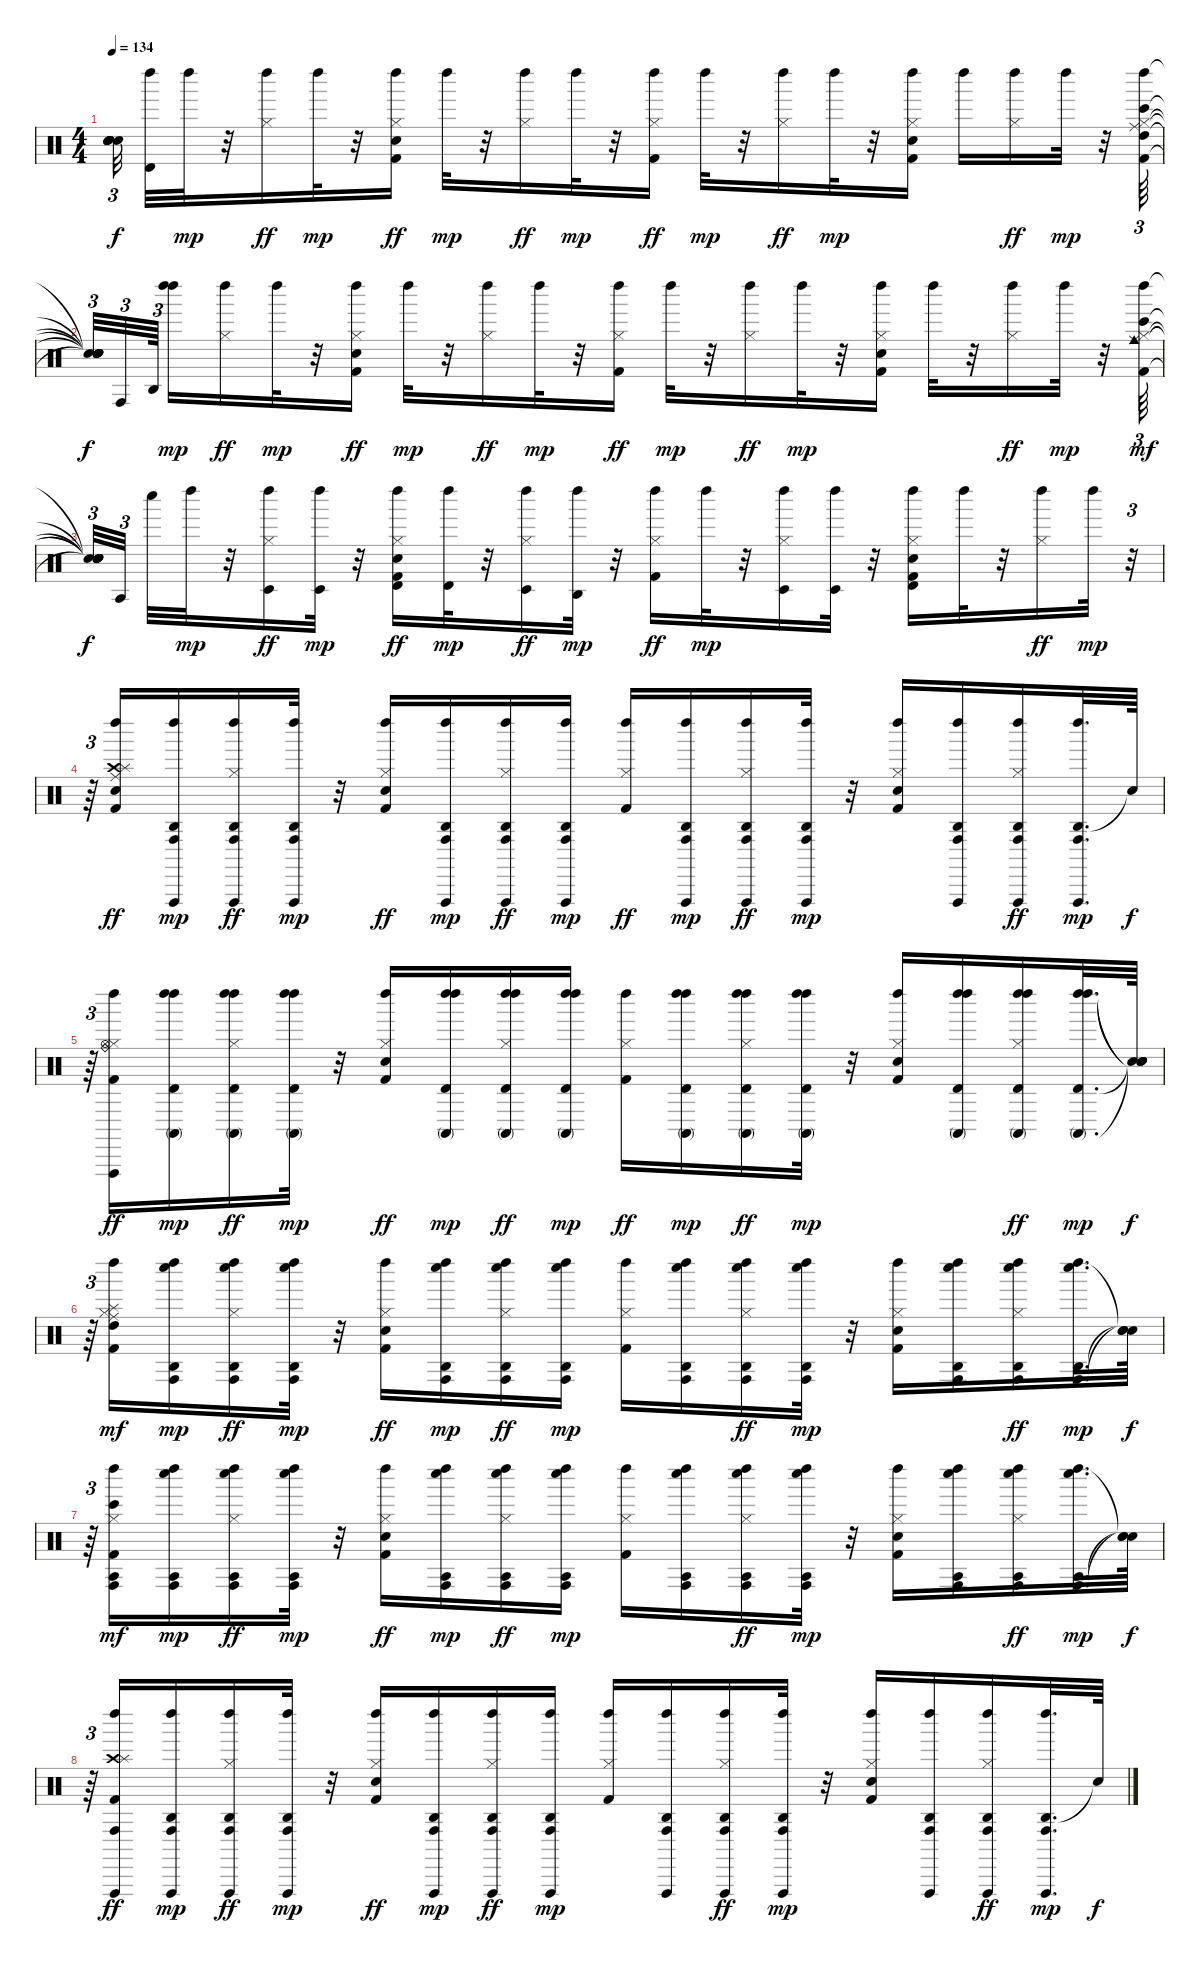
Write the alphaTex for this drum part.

\track "" {instrument percussion}
\staff {score}
\articulation defaults
\ts (4 4)
\tempo 134
\clef neutral
\ks c
("Snare (hit)"{t} "Snare (hit)"{t} "Snare (hit)"{t} "Snare (hit)"{t} "Snare (hit)"{t} "Snare (hit)"{t}).32{tu (3 2) dy f beam splitsecondary} ("Timbale high (hit)" "Left Maraca (hit)").32 "Left Maraca (hit)".32{dy mp} r.32 ("Hi-Hat (closed)" "Left Maraca (hit)").16{dy ff} "Left Maraca (hit)".32{dy mp} r.32 ("Left Maraca (hit)" "Hi-Hat (closed)" "Snare (hit) 2" "Kick (hit) 2").16{dy ff} "Left Maraca (hit)".32{dy mp} r.32 ("Left Maraca (hit)" "Hi-Hat (closed)").16{dy ff} "Left Maraca (hit)".32{dy mp} r.32 ("Left Maraca (hit)" "Hi-Hat (closed)" "Kick (hit) 2").16{dy ff} "Left Maraca (hit)".32{dy mp} r.32 ("Left Maraca (hit)" "Hi-Hat (closed)").16{dy ff} "Left Maraca (hit)".32{dy mp} r.32 ("Kick (hit) 2" "Snare (hit) 2" "Hi-Hat (closed)" "Left Maraca (hit)").16 "Left Maraca (hit)".16 ("Hi-Hat (closed)" "Left Maraca (hit)").16{dy ff} "Left Maraca (hit)".32{dy mp} r.32 ("Bongo High (hit)" "Kick (hit) 2" "Hi-Hat (closed)" "Left Maraca (hit)" "High Tom (hit)" "Ride (middle)").64{tu (3 2)} |
("Snare (hit)"{t} "Snare (hit)"{t} "Snare (hit)"{t} "Snare (hit)"{t} "Snare (hit)"{t} "Snare (hit)"{t}).32{tu (3 2) dy f} "Conga high (hit)".32{tu (3 2)} "Agogo high (hit)".64{tu (3 2) beam splitsecondary} ("Left Maraca (hit)" "Left Maraca (hit)").16{dy mp} ("Hi-Hat (closed)" "Left Maraca (hit)").16{dy ff} "Left Maraca (hit)".32{dy mp} r.32 ("Left Maraca (hit)" "Hi-Hat (closed)" "Snare (hit) 2" "Kick (hit) 2").16{dy ff} "Left Maraca (hit)".32{dy mp} r.32 ("Left Maraca (hit)" "Hi-Hat (closed)").16{dy ff} "Left Maraca (hit)".32{dy mp} r.32 ("Left Maraca (hit)" "Hi-Hat (closed)" "Kick (hit) 2").16{dy ff} "Left Maraca (hit)".32{dy mp} r.32 ("Left Maraca (hit)" "Hi-Hat (closed)").16{dy ff} "Left Maraca (hit)".32{dy mp} r.32 ("Kick (hit) 2" "Snare (hit) 2" "Hi-Hat (closed)" "Left Maraca (hit)").16 "Left Maraca (hit)".32 r.32 ("Hi-Hat (closed)" "Left Maraca (hit)").16{dy ff} "Left Maraca (hit)".32{dy mp} r.32 ("Bongo High (hit)" "Kick (hit) 2" "Hi-Hat (closed)" "Left Maraca (hit)" "Ride (middle)" "Cowbell medium (hit)").64{tu (3 2) dy mf} |
("Snare (hit)"{t} "Snare (hit)"{t} "Snare (hit)"{t} "Snare (hit)"{t} "Snare (hit)"{t} "Snare (hit)"{t}).32{tu (3 2) dy f} "Agogo tow (hit)".32{tu (3 2) beam splitsecondary} "Whistle low (hit)".32 "Left Maraca (hit)".32{dy mp} r.32 ("Left Maraca (hit)" "Timbale low (hit)" "Hi-Hat (closed)").16{dy ff} ("Timbale low (hit)" "Left Maraca (hit)").32{dy mp} r.32 ("Left Maraca (hit)" "Timbale high (hit)" "Hi-Hat (closed)" "Snare (hit) 2" "Kick (hit) 2").16{dy ff} ("Timbale high (hit)" "Left Maraca (hit)").32{dy mp} r.32 ("Left Maraca (hit)" "Timbale low (hit)" "Hi-Hat (closed)").16{dy ff} ("Agogo high (hit)" "Left Maraca (hit)").32{dy mp} r.32 ("Left Maraca (hit)" "Hi-Hat (closed)" "Kick (hit) 2").16{dy ff} "Left Maraca (hit)".32{dy mp} r.32 ("Hi-Hat (closed)" "Timbale low (hit)" "Left Maraca (hit)").16 ("Left Maraca (hit)" "Timbale low (hit)").32 r.32 ("Kick (hit) 2" "Snare (hit) 2" "Hi-Hat (closed)" "Timbale high (hit)" "Left Maraca (hit)").16 "Left Maraca (hit)".32 r.32 ("Hi-Hat (closed)" "Left Maraca (hit)").16{dy ff} "Left Maraca (hit)".32{dy mp} r.32{tu (3 2)} |
r.64{tu (3 2)} ("Kick (hit) 2" "Crash high (hit)" "Left Maraca (hit)" "Hand Clap (hit)" "Ride (middle)" "Splash (hit)").16{dy ff} ("Agogo high (hit)" "Conga high (hit)" "Vibraslap (hit)" "Left Maraca (hit)").16{dy mp} ("Agogo high (hit)" "Conga high (hit)" "Vibraslap (hit)" "Left Maraca (hit)" "Hi-Hat (closed)").16{dy ff} ("Agogo high (hit)" "Conga high (hit)" "Vibraslap (hit)" "Left Maraca (hit)").32{dy mp} r.32 ("Left Maraca (hit)" "Hi-Hat (closed)" "Snare (hit) 2" "Kick (hit) 2").16{dy ff} ("Agogo high (hit)" "Conga high (hit)" "Vibraslap (hit)" "Left Maraca (hit)").16{dy mp} ("Agogo high (hit)" "Conga high (hit)" "Vibraslap (hit)" "Left Maraca (hit)" "Hi-Hat (closed)").16{dy ff} ("Agogo high (hit)" "Conga high (hit)" "Vibraslap (hit)" "Left Maraca (hit)").16{dy mp} ("Left Maraca (hit)" "Hi-Hat (closed)" "Kick (hit) 2").16{dy ff} ("Vibraslap (hit)" "Conga high (hit)" "Agogo high (hit)" "Left Maraca (hit)").16{dy mp} ("Agogo high (hit)" "Conga high (hit)" "Vibraslap (hit)" "Hi-Hat (closed)" "Left Maraca (hit)").16{dy ff} ("Agogo high (hit)" "Conga high (hit)" "Vibraslap (hit)" "Left Maraca (hit)").32{dy mp} r.32 ("Kick (hit) 2" "Snare (hit) 2" "Hi-Hat (closed)" "Left Maraca (hit)").16 ("Agogo high (hit)" "Conga high (hit)" "Vibraslap (hit)" "Left Maraca (hit)").16 ("Agogo high (hit)" "Conga high (hit)" "Vibraslap (hit)" "Hi-Hat (closed)" "Left Maraca (hit)").16{dy ff} ("Agogo high (hit)" "Conga high (hit)" "Vibraslap (hit)" "Left Maraca (hit)").32{d dy mp} "Snare (hit)"{t}.64{dy f} |
r.64{tu (3 2)} ("Kick (hit) 2" "Hi-Hat (closed)" "Left Maraca (hit)" "Hi-Hat (open)" "Ride (bell)" "Vibraslap (hit)").16{dy ff} ("Left Maraca (hit)" "Timbale high (hit)" "Conga high (mute)" "Left Maraca (hit)").16{dy mp} ("Left Maraca (hit)" "Timbale high (hit)" "Conga high (mute)" "Left Maraca (hit)" "Hi-Hat (closed)").16{dy ff} ("Left Maraca (hit)" "Timbale high (hit)" "Conga high (mute)" "Left Maraca (hit)").32{dy mp} r.32 ("Left Maraca (hit)" "Hi-Hat (closed)" "Snare (hit) 2" "Kick (hit) 2").16{dy ff} ("Left Maraca (hit)" "Timbale high (hit)" "Conga high (mute)" "Left Maraca (hit)").16{dy mp} ("Left Maraca (hit)" "Timbale high (hit)" "Conga high (mute)" "Left Maraca (hit)" "Hi-Hat (closed)").16{dy ff} ("Left Maraca (hit)" "Timbale high (hit)" "Conga high (mute)" "Left Maraca (hit)").16{dy mp} ("Left Maraca (hit)" "Hi-Hat (closed)" "Kick (hit) 2").16{dy ff} ("Left Maraca (hit)" "Timbale high (hit)" "Conga high (mute)" "Left Maraca (hit)").16{dy mp} ("Left Maraca (hit)" "Timbale high (hit)" "Conga high (mute)" "Hi-Hat (closed)" "Left Maraca (hit)").16{dy ff} ("Left Maraca (hit)" "Timbale high (hit)" "Conga high (mute)" "Left Maraca (hit)").32{dy mp} r.32 ("Kick (hit) 2" "Snare (hit) 2" "Hi-Hat (closed)" "Left Maraca (hit)").16 ("Left Maraca (hit)" "Timbale high (hit)" "Conga high (mute)" "Left Maraca (hit)").16 ("Left Maraca (hit)" "Timbale high (hit)" "Conga high (mute)" "Hi-Hat (closed)" "Left Maraca (hit)").16{dy ff} ("Left Maraca (hit)" "Timbale high (hit)" "Conga high (mute)" "Left Maraca (hit)").32{d dy mp} ("Snare (hit)"{t} "Snare (hit)"{t} "Snare (hit)"{t} "Snare (hit)"{t}).64{dy f} |
r.64{tu (3 2)} ("Kick (hit) 2" "Hi-Hat (closed)" "Left Maraca (hit)" "High Tom (hit)" "Ride (middle)" "Splash (hit)").16{dy mf} ("Whistle low (hit)" "Agogo high (hit)" "Conga high (hit)" "Left Maraca (hit)").16{dy mp} ("Whistle low (hit)" "Agogo high (hit)" "Conga high (hit)" "Left Maraca (hit)" "Hi-Hat (closed)").16{dy ff} ("Whistle low (hit)" "Agogo high (hit)" "Conga high (hit)" "Left Maraca (hit)").32{dy mp} r.32 ("Left Maraca (hit)" "Hi-Hat (closed)" "Snare (hit) 2" "Kick (hit) 2").16{dy ff} ("Whistle low (hit)" "Agogo high (hit)" "Conga high (hit)" "Left Maraca (hit)").16{dy mp} ("Whistle low (hit)" "Agogo high (hit)" "Conga high (hit)" "Left Maraca (hit)" "Hi-Hat (closed)").16{dy ff} ("Whistle low (hit)" "Agogo high (hit)" "Conga high (hit)" "Left Maraca (hit)").16{dy mp} ("Kick (hit) 2" "Hi-Hat (closed)" "Left Maraca (hit)").16 ("Whistle low (hit)" "Agogo high (hit)" "Conga high (hit)" "Left Maraca (hit)").16 ("Whistle low (hit)" "Agogo high (hit)" "Conga high (hit)" "Hi-Hat (closed)" "Left Maraca (hit)").16{dy ff} ("Whistle low (hit)" "Agogo high (hit)" "Conga high (hit)" "Left Maraca (hit)").32{dy mp} r.32 ("Kick (hit) 2" "Snare (hit) 2" "Hi-Hat (closed)" "Left Maraca (hit)").16 ("Whistle low (hit)" "Agogo high (hit)" "Conga high (hit)" "Left Maraca (hit)").16 ("Whistle low (hit)" "Agogo high (hit)" "Conga high (hit)" "Hi-Hat (closed)" "Left Maraca (hit)").16{dy ff} ("Whistle low (hit)" "Agogo high (hit)" "Conga high (hit)" "Left Maraca (hit)").32{d dy mp} ("Snare (hit)"{t} "Snare (hit)"{t} "Snare (hit)"{t}).64{dy f} |
r.64{tu (3 2)} ("Left Maraca (hit)" "Hi-Hat (closed)" "Kick (hit) 2" "Agogo tow (hit)" "Conga high (hit)" "Bongo High (hit)").16{dy mf} ("Whistle low (hit)" "Agogo tow (hit)" "Conga high (hit)" "Left Maraca (hit)").16{dy mp} ("Whistle low (hit)" "Agogo tow (hit)" "Conga high (hit)" "Left Maraca (hit)" "Hi-Hat (closed)").16{dy ff} ("Whistle low (hit)" "Agogo tow (hit)" "Conga high (hit)" "Left Maraca (hit)").32{dy mp} r.32 ("Left Maraca (hit)" "Hi-Hat (closed)" "Snare (hit) 2" "Kick (hit) 2").16{dy ff} ("Whistle low (hit)" "Agogo tow (hit)" "Conga high (hit)" "Left Maraca (hit)").16{dy mp} ("Whistle low (hit)" "Agogo tow (hit)" "Conga high (hit)" "Left Maraca (hit)" "Hi-Hat (closed)").16{dy ff} ("Conga high (hit)" "Agogo tow (hit)" "Whistle low (hit)" "Left Maraca (hit)").16{dy mp} ("Kick (hit) 2" "Hi-Hat (closed)" "Left Maraca (hit)").16 ("Whistle low (hit)" "Agogo tow (hit)" "Conga high (hit)" "Left Maraca (hit)").16 ("Whistle low (hit)" "Agogo tow (hit)" "Conga high (hit)" "Hi-Hat (closed)" "Left Maraca (hit)").16{dy ff} ("Whistle low (hit)" "Agogo tow (hit)" "Conga high (hit)" "Left Maraca (hit)").32{dy mp} r.32 ("Kick (hit) 2" "Snare (hit) 2" "Hi-Hat (closed)" "Left Maraca (hit)").16 ("Whistle low (hit)" "Agogo tow (hit)" "Conga high (hit)" "Left Maraca (hit)").16 ("Whistle low (hit)" "Agogo tow (hit)" "Conga high (hit)" "Hi-Hat (closed)" "Left Maraca (hit)").16{dy ff} ("Whistle low (hit)" "Agogo tow (hit)" "Conga high (hit)" "Left Maraca (hit)").32{d dy mp} ("Snare (hit)"{t} "Snare (hit)"{t} "Snare (hit)"{t}).64{dy f} |
r.64{tu (3 2)} ("Left Maraca (hit)" "Crash high (hit)" "Kick (hit) 2" "Conga high (hit)" "Vibraslap (hit)" "Splash (hit)").16{dy ff} ("Agogo high (hit)" "Conga high (hit)" "Vibraslap (hit)" "Left Maraca (hit)").16{dy mp} ("Agogo high (hit)" "Conga high (hit)" "Vibraslap (hit)" "Left Maraca (hit)" "Hi-Hat (closed)").16{dy ff} ("Agogo high (hit)" "Conga high (hit)" "Vibraslap (hit)" "Left Maraca (hit)").32{dy mp} r.32 ("Left Maraca (hit)" "Hi-Hat (closed)" "Snare (hit) 2" "Kick (hit) 2").16{dy ff} ("Agogo high (hit)" "Conga high (hit)" "Vibraslap (hit)" "Left Maraca (hit)").16{dy mp} ("Agogo high (hit)" "Conga high (hit)" "Vibraslap (hit)" "Left Maraca (hit)" "Hi-Hat (closed)").16{dy ff} ("Agogo high (hit)" "Conga high (hit)" "Vibraslap (hit)" "Left Maraca (hit)").16{dy mp} ("Kick (hit) 2" "Hi-Hat (closed)" "Left Maraca (hit)").16 ("Agogo high (hit)" "Conga high (hit)" "Vibraslap (hit)" "Left Maraca (hit)").16 ("Agogo high (hit)" "Conga high (hit)" "Vibraslap (hit)" "Hi-Hat (closed)" "Left Maraca (hit)").16{dy ff} ("Agogo high (hit)" "Conga high (hit)" "Vibraslap (hit)" "Left Maraca (hit)").32{dy mp} r.32 ("Kick (hit) 2" "Snare (hit) 2" "Hi-Hat (closed)" "Left Maraca (hit)").16 ("Agogo high (hit)" "Conga high (hit)" "Vibraslap (hit)" "Left Maraca (hit)").16 ("Vibraslap (hit)" "Conga high (hit)" "Agogo high (hit)" "Hi-Hat (closed)" "Left Maraca (hit)").16{dy ff} ("Agogo high (hit)" "Conga high (hit)" "Vibraslap (hit)" "Left Maraca (hit)").32{d dy mp} "Snare (hit)"{t}.64{dy f}
